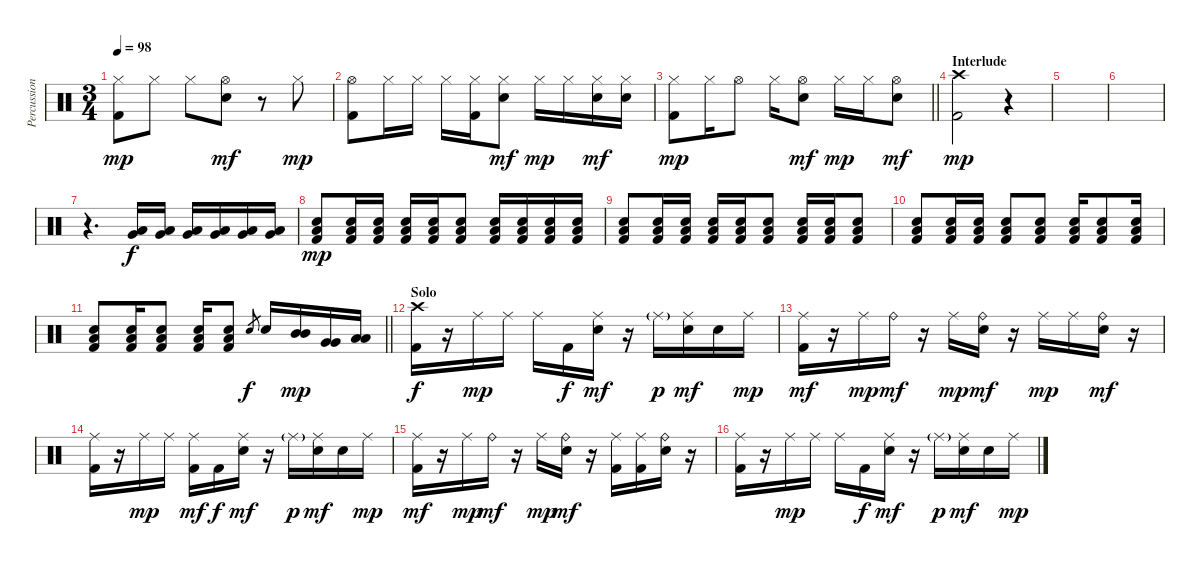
\track ("Percussion" "Percussion") {instrument percussion}
\staff {score}
\articulation defaults
\ts (3 4)
\tempo 98
\clef neutral
\ks c
("Hi-Hat (closed)" "Kick (hit) 2").8{dy mp} "Hi-Hat (closed)".8 "Hi-Hat (closed)".8 ("Hi-Hat (open)" "Electric Snare (hit)").8{dy mf} r.8 "Hi-Hat (closed)".8{dy mp} |
("Hi-Hat (open)" "Kick (hit) 2").8 "Hi-Hat (closed)".16 "Hi-Hat (closed)".16 "Hi-Hat (closed)".16 ("Hi-Hat (closed)" "Kick (hit) 2").16 ("Hi-Hat (closed)" "Electric Snare (hit)").8{dy mf} "Hi-Hat (closed)".16{dy mp} "Hi-Hat (closed)".16 ("Hi-Hat (closed)" "Electric Snare (hit)").16{dy mf} ("Hi-Hat (closed)" "Electric Snare (hit)").16 |
\barLineRight lightlight
("Hi-Hat (closed)" "Kick (hit) 2").8{dy mp} "Hi-Hat (closed)".16 "Hi-Hat (open)".8 "Hi-Hat (closed)".16 ("Hi-Hat (open)" "Electric Snare (hit)").8{dy mf} "Hi-Hat (closed)".16{dy mp} "Hi-Hat (closed)".16 ("Hi-Hat (open)" "Electric Snare (hit)").8{dy mf} |
\section ("" "Interlude")
("Crash high (hit)" "Kick (hit) 2").2{dy mp} r.4 |
|
|
r.4{d} ("Low Floor Tom (hit)" "Very Low Tom (hit)").16{dy f} ("Low Floor Tom (hit)" "Very Low Tom (hit)").16 ("Low Floor Tom (hit)" "Very Low Tom (hit)").16 ("Low Floor Tom (hit)" "Very Low Tom (hit)").16 ("Low Floor Tom (hit)" "Very Low Tom (hit)").16 ("Low Floor Tom (hit)" "Very Low Tom (hit)").16 |
("Low Floor Tom (hit)" "Electric Snare (hit)" "Kick (hit) 2").8{dy mp volume 13} ("Low Floor Tom (hit)" "Electric Snare (hit)" "Kick (hit) 2").16 ("Low Floor Tom (hit)" "Electric Snare (hit)" "Kick (hit) 2").16 ("Low Floor Tom (hit)" "Electric Snare (hit)" "Kick (hit) 2").16 ("Low Floor Tom (hit)" "Electric Snare (hit)" "Kick (hit) 2").16 ("Low Floor Tom (hit)" "Electric Snare (hit)" "Kick (hit) 2").8 ("Low Floor Tom (hit)" "Electric Snare (hit)" "Kick (hit) 2").16 ("Low Floor Tom (hit)" "Electric Snare (hit)" "Kick (hit) 2").16 ("Low Floor Tom (hit)" "Electric Snare (hit)" "Kick (hit) 2").16 ("Low Floor Tom (hit)" "Electric Snare (hit)" "Kick (hit) 2").16 |
("Low Floor Tom (hit)" "Electric Snare (hit)" "Kick (hit) 2").8 ("Low Floor Tom (hit)" "Electric Snare (hit)" "Kick (hit) 2").16 ("Low Floor Tom (hit)" "Electric Snare (hit)" "Kick (hit) 2").16 ("Low Floor Tom (hit)" "Electric Snare (hit)" "Kick (hit) 2").16 ("Low Floor Tom (hit)" "Electric Snare (hit)" "Kick (hit) 2").16 ("Low Floor Tom (hit)" "Electric Snare (hit)" "Kick (hit) 2").8 ("Low Floor Tom (hit)" "Electric Snare (hit)" "Kick (hit) 2").16 ("Low Floor Tom (hit)" "Electric Snare (hit)" "Kick (hit) 2").16 ("Low Floor Tom (hit)" "Electric Snare (hit)" "Kick (hit) 2").8 |
("Low Floor Tom (hit)" "Electric Snare (hit)" "Kick (hit) 2").8 ("Low Floor Tom (hit)" "Electric Snare (hit)" "Kick (hit) 2").16 ("Low Floor Tom (hit)" "Electric Snare (hit)" "Kick (hit) 2").16 ("Low Floor Tom (hit)" "Electric Snare (hit)" "Kick (hit) 2").8 ("Low Floor Tom (hit)" "Electric Snare (hit)" "Kick (hit) 2").8 ("Low Floor Tom (hit)" "Electric Snare (hit)" "Kick (hit) 2").16 ("Low Floor Tom (hit)" "Electric Snare (hit)" "Kick (hit) 2").8 ("Low Floor Tom (hit)" "Electric Snare (hit)" "Kick (hit) 2").16 |
\barLineRight lightlight
("Low Floor Tom (hit)" "Electric Snare (hit)" "Kick (hit) 2").8 ("Low Floor Tom (hit)" "Electric Snare (hit)" "Kick (hit) 2").16 ("Low Floor Tom (hit)" "Electric Snare (hit)" "Kick (hit) 2").8 ("Low Floor Tom (hit)" "Electric Snare (hit)" "Kick (hit) 2").16 ("Low Floor Tom (hit)" "Electric Snare (hit)" "Kick (hit) 2").8 "Electric Snare (hit)".8{gr dy f} "Electric Snare (hit)".16 ("Mid Tom (hit)" "Mid Tom (hit)").16{dy mp} ("Very Low Tom (hit)" "Very Low Tom (hit)").16 ("Low Floor Tom (hit)" "Low Floor Tom (hit)").16 |
\section ("" "Solo")
("Crash high (hit)" "Kick (hit) 2").16{dy f} r.16 "Ride (middle)".16{dy mp} "Ride (middle)".16 "Ride (middle)".16 "Kick (hit) 2".16{dy f} ("Ride (middle)" "Electric Snare (hit)").16{dy mf} r.16 "Ride (middle)"{g}.16{dy p} ("Ride (middle)" "Electric Snare (hit)").16{dy mf} "Electric Snare (hit)".16 "Ride (middle)".16{dy mp} |
("Ride (middle)" "Kick (hit) 2").16{dy mf} r.16 "Ride (middle)".16{dy mp} "Ride (bell)".16{dy mf} r.16 "Ride (middle)".16{dy mp} ("Ride (bell)" "Electric Snare (hit)").16{dy mf} r.16 "Ride (middle)".16{dy mp} "Ride (middle)".16 ("Ride (bell)" "Electric Snare (hit)").16{dy mf} r.16 |
("Ride (middle)" "Kick (hit) 2").16 r.16 "Ride (middle)".16{dy mp} "Ride (middle)".16 ("Ride (middle)" "Kick (hit) 2").16{dy mf} "Kick (hit) 2".16{dy f} ("Ride (middle)" "Electric Snare (hit)").16{dy mf} r.16 "Ride (middle)"{g}.16{dy p} ("Ride (middle)" "Electric Snare (hit)").16{dy mf} "Electric Snare (hit)".16 "Ride (middle)".16{dy mp} |
("Ride (middle)" "Kick (hit) 2").16{dy mf} r.16 "Ride (middle)".16{dy mp} "Ride (bell)".16{dy mf} r.16 "Ride (middle)".16{dy mp} ("Ride (bell)" "Electric Snare (hit)").16{dy mf} r.16 ("Ride (middle)" "Kick (hit) 2").16 ("Ride (middle)" "Kick (hit) 2").16 ("Ride (bell)" "Electric Snare (hit)").16 r.16 |
("Ride (middle)" "Kick (hit) 2").16 r.16 "Ride (middle)".16{dy mp} "Ride (middle)".16 "Ride (middle)".16 "Kick (hit) 2".16{dy f} ("Ride (middle)" "Electric Snare (hit)").16{dy mf} r.16 "Ride (middle)"{g}.16{dy p} ("Ride (middle)" "Electric Snare (hit)").16{dy mf} "Electric Snare (hit)".16 "Ride (middle)".16{dy mp}
